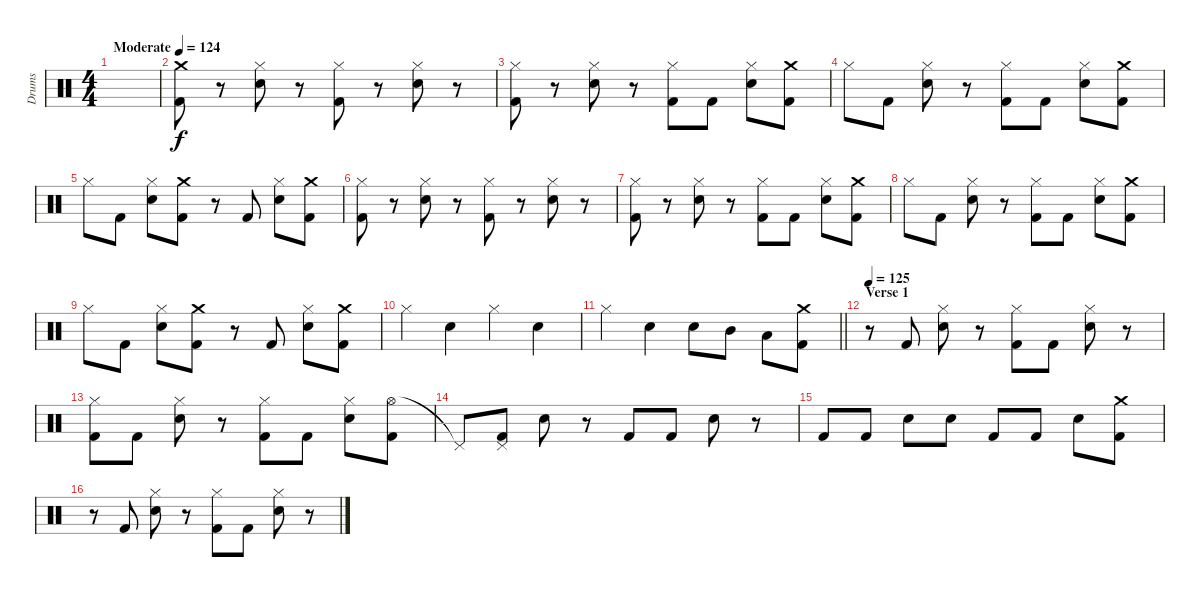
\track ("Drums" "Drums") {instrument percussion}
\staff {score}
\articulation defaults
\ts (4 4)
\tempo (124 "Moderate")
\clef neutral
\ks c
|
("Crash medium (hit)" "Kick (hit) 2").8 r.8 ("Hi-Hat (closed)" "Snare (hit) 2").8 r.8 ("Hi-Hat (closed)" "Kick (hit) 2").8 r.8 ("Hi-Hat (closed)" "Snare (hit) 2").8 r.8 |
("Hi-Hat (closed)" "Kick (hit) 2").8 r.8 ("Hi-Hat (closed)" "Snare (hit) 2").8 r.8 ("Hi-Hat (closed)" "Kick (hit) 2").8 "Kick (hit) 2".8 ("Hi-Hat (closed)" "Snare (hit) 2").8 ("Crash medium (hit)" "Kick (hit) 2").8 |
"Hi-Hat (closed)".8 "Kick (hit) 2".8 ("Hi-Hat (closed)" "Snare (hit) 2").8 r.8 ("Hi-Hat (closed)" "Kick (hit) 2").8 "Kick (hit) 2".8 ("Hi-Hat (closed)" "Snare (hit) 2").8 ("Crash medium (hit)" "Kick (hit) 2").8 |
"Hi-Hat (closed)".8 "Kick (hit) 2".8 ("Hi-Hat (closed)" "Snare (hit) 2").8 ("Crash medium (hit)" "Kick (hit) 2").8 r.8 "Kick (hit) 2".8 ("Hi-Hat (closed)" "Snare (hit) 2").8 ("Crash medium (hit)" "Kick (hit) 2").8 |
("Hi-Hat (closed)" "Kick (hit) 2").8 r.8 ("Hi-Hat (closed)" "Snare (hit) 2").8 r.8 ("Hi-Hat (closed)" "Kick (hit) 2").8 r.8 ("Hi-Hat (closed)" "Snare (hit) 2").8 r.8 |
("Hi-Hat (closed)" "Kick (hit) 2").8 r.8 ("Hi-Hat (closed)" "Snare (hit) 2").8 r.8 ("Hi-Hat (closed)" "Kick (hit) 2").8 "Kick (hit) 2".8 ("Hi-Hat (closed)" "Snare (hit) 2").8 ("Crash medium (hit)" "Kick (hit) 2").8 |
"Hi-Hat (closed)".8 "Kick (hit) 2".8 ("Hi-Hat (closed)" "Snare (hit) 2").8 r.8 ("Hi-Hat (closed)" "Kick (hit) 2").8 "Kick (hit) 2".8 ("Hi-Hat (closed)" "Snare (hit) 2").8 ("Crash medium (hit)" "Kick (hit) 2").8 |
"Hi-Hat (closed)".8 "Kick (hit) 2".8 ("Hi-Hat (closed)" "Snare (hit) 2").8 ("Crash medium (hit)" "Kick (hit) 2").8 r.8 "Kick (hit) 2".8 ("Hi-Hat (closed)" "Snare (hit) 2").8 ("Crash medium (hit)" "Kick (hit) 2").8 |
"Hi-Hat (closed)".4 "Snare (hit) 2".4 "Hi-Hat (closed)".4 "Snare (hit) 2".4 |
\barLineRight lightlight "Hi-Hat (closed)".4 "Snare (hit) 2".4 "Snare (hit) 2".8 "Mid Tom (hit)".8 "Low Tom (hit)".8
("Crash medium (hit)" "Kick (hit) 2").8 |
\section ("" "Verse 1")
\tempo 125
r.8 "Kick (hit) 2".8 ("Hi-Hat (closed)" "Snare (hit) 2").8 r.8 ("Hi-Hat (closed)" "Kick (hit) 2").8 "Kick (hit) 2".8 ("Hi-Hat (closed)" "Snare (hit) 2").8 r.8 |
("Hi-Hat (closed)" "Kick (hit) 2").8 "Kick (hit) 2".8 ("Hi-Hat (closed)" "Snare (hit) 2").8 r.8 ("Hi-Hat (closed)" "Kick (hit) 2").8 "Kick (hit) 2".8 ("Hi-Hat (closed)" "Snare (hit) 2").8 ("Hi-Hat (open)" "Kick (hit) 2").8 |
"Pedal Hi-Hat (hit)"{t}.8 ("Pedal Hi-Hat (hit)" "Kick (hit) 2").8 "Snare (hit) 2".8 r.8 "Kick (hit) 2".8 "Kick (hit) 2".8 "Snare (hit) 2".8 r.8 |
"Kick (hit) 2".8 "Kick (hit) 2".8 "Snare (hit) 2".8 "Snare (hit) 2".8 "Kick (hit) 2".8 "Kick (hit) 2".8 "Snare (hit) 2".8 ("Crash medium (hit)" "Kick (hit) 2").8 |
r.8 "Kick (hit) 2".8 ("Hi-Hat (closed)" "Snare (hit) 2").8 r.8 ("Hi-Hat (closed)" "Kick (hit) 2").8 "Kick (hit) 2".8 ("Hi-Hat (closed)" "Snare (hit) 2").8 r.8
